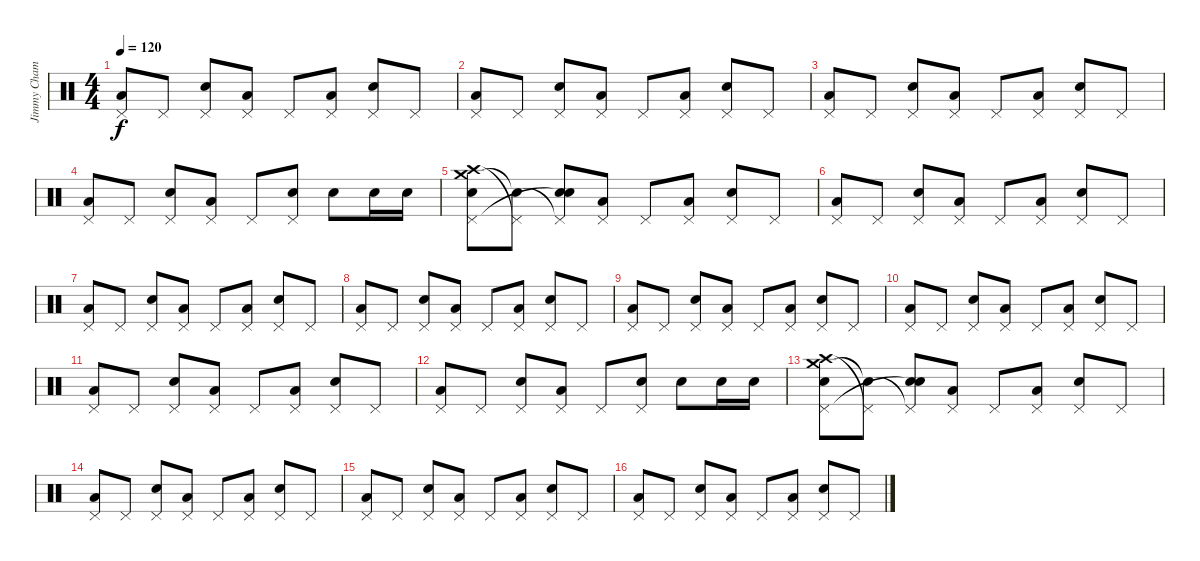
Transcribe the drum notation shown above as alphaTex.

\track ("Jimmy Chamberlin" "Jimmy Cham") {instrument percussion}
\staff {score}
\articulation defaults
\ts (4 4)
\tempo 120
\clef neutral
\ks c
("Low Floor Tom (hit)" "Pedal Hi-Hat (hit)").8{dy f} "Pedal Hi-Hat (hit)".8 ("Snare (hit) 2" "Pedal Hi-Hat (hit)").8 ("Low Floor Tom (hit)" "Pedal Hi-Hat (hit)").8 "Pedal Hi-Hat (hit)".8 ("Low Floor Tom (hit)" "Pedal Hi-Hat (hit)").8 ("Snare (hit) 2" "Pedal Hi-Hat (hit)").8 "Pedal Hi-Hat (hit)".8 |
("Low Floor Tom (hit)" "Pedal Hi-Hat (hit)").8 "Pedal Hi-Hat (hit)".8 ("Snare (hit) 2" "Pedal Hi-Hat (hit)").8 ("Low Floor Tom (hit)" "Pedal Hi-Hat (hit)").8 "Pedal Hi-Hat (hit)".8 ("Low Floor Tom (hit)" "Pedal Hi-Hat (hit)").8 ("Snare (hit) 2" "Pedal Hi-Hat (hit)").8 "Pedal Hi-Hat (hit)".8 |
("Low Floor Tom (hit)" "Pedal Hi-Hat (hit)").8 "Pedal Hi-Hat (hit)".8 ("Snare (hit) 2" "Pedal Hi-Hat (hit)").8 ("Low Floor Tom (hit)" "Pedal Hi-Hat (hit)").8 "Pedal Hi-Hat (hit)".8 ("Low Floor Tom (hit)" "Pedal Hi-Hat (hit)").8 ("Snare (hit) 2" "Pedal Hi-Hat (hit)").8 "Pedal Hi-Hat (hit)".8 |
("Low Floor Tom (hit)" "Pedal Hi-Hat (hit)").8 "Pedal Hi-Hat (hit)".8 ("Snare (hit) 2" "Pedal Hi-Hat (hit)").8 ("Low Floor Tom (hit)" "Pedal Hi-Hat (hit)").8 "Pedal Hi-Hat (hit)".8 ("Snare (hit) 2" "Pedal Hi-Hat (hit)").8 "Snare (hit) 2".8 "Snare (hit) 2".16 "Snare (hit) 2".16 |
("Crash high (hit)" "Crash medium (hit)" "Pedal Hi-Hat (hit)" "Snare (hit)").8 ("Pedal Hi-Hat (hit)"{t} "Snare (hit)"{t}).8 ("Snare (hit) 2" "Pedal Hi-Hat (hit)"{t} "Snare (hit)"{t}).8 ("Low Floor Tom (hit)" "Pedal Hi-Hat (hit)").8 "Pedal Hi-Hat (hit)".8 ("Low Floor Tom (hit)" "Pedal Hi-Hat (hit)").8 ("Snare (hit) 2" "Pedal Hi-Hat (hit)").8 "Pedal Hi-Hat (hit)".8 |
("Low Floor Tom (hit)" "Pedal Hi-Hat (hit)").8 "Pedal Hi-Hat (hit)".8 ("Snare (hit) 2" "Pedal Hi-Hat (hit)").8 ("Low Floor Tom (hit)" "Pedal Hi-Hat (hit)").8 "Pedal Hi-Hat (hit)".8 ("Low Floor Tom (hit)" "Pedal Hi-Hat (hit)").8 ("Snare (hit) 2" "Pedal Hi-Hat (hit)").8 "Pedal Hi-Hat (hit)".8 |
("Low Floor Tom (hit)" "Pedal Hi-Hat (hit)").8 "Pedal Hi-Hat (hit)".8 ("Snare (hit) 2" "Pedal Hi-Hat (hit)").8 ("Low Floor Tom (hit)" "Pedal Hi-Hat (hit)").8 "Pedal Hi-Hat (hit)".8 ("Low Floor Tom (hit)" "Pedal Hi-Hat (hit)").8 ("Snare (hit) 2" "Pedal Hi-Hat (hit)").8 "Pedal Hi-Hat (hit)".8 |
("Low Floor Tom (hit)" "Pedal Hi-Hat (hit)").8 "Pedal Hi-Hat (hit)".8 ("Snare (hit) 2" "Pedal Hi-Hat (hit)").8 ("Low Floor Tom (hit)" "Pedal Hi-Hat (hit)").8 "Pedal Hi-Hat (hit)".8 ("Low Floor Tom (hit)" "Pedal Hi-Hat (hit)").8 ("Snare (hit) 2" "Pedal Hi-Hat (hit)").8 "Pedal Hi-Hat (hit)".8 |
("Low Floor Tom (hit)" "Pedal Hi-Hat (hit)").8 "Pedal Hi-Hat (hit)".8 ("Snare (hit) 2" "Pedal Hi-Hat (hit)").8 ("Low Floor Tom (hit)" "Pedal Hi-Hat (hit)").8 "Pedal Hi-Hat (hit)".8 ("Low Floor Tom (hit)" "Pedal Hi-Hat (hit)").8 ("Snare (hit) 2" "Pedal Hi-Hat (hit)").8 "Pedal Hi-Hat (hit)".8 |
("Low Floor Tom (hit)" "Pedal Hi-Hat (hit)").8 "Pedal Hi-Hat (hit)".8 ("Snare (hit) 2" "Pedal Hi-Hat (hit)").8 ("Low Floor Tom (hit)" "Pedal Hi-Hat (hit)").8 "Pedal Hi-Hat (hit)".8 ("Low Floor Tom (hit)" "Pedal Hi-Hat (hit)").8 ("Snare (hit) 2" "Pedal Hi-Hat (hit)").8 "Pedal Hi-Hat (hit)".8 |
("Low Floor Tom (hit)" "Pedal Hi-Hat (hit)").8 "Pedal Hi-Hat (hit)".8 ("Snare (hit) 2" "Pedal Hi-Hat (hit)").8 ("Low Floor Tom (hit)" "Pedal Hi-Hat (hit)").8 "Pedal Hi-Hat (hit)".8 ("Low Floor Tom (hit)" "Pedal Hi-Hat (hit)").8 ("Snare (hit) 2" "Pedal Hi-Hat (hit)").8 "Pedal Hi-Hat (hit)".8 |
("Low Floor Tom (hit)" "Pedal Hi-Hat (hit)").8 "Pedal Hi-Hat (hit)".8 ("Snare (hit) 2" "Pedal Hi-Hat (hit)").8 ("Low Floor Tom (hit)" "Pedal Hi-Hat (hit)").8 "Pedal Hi-Hat (hit)".8 ("Snare (hit) 2" "Pedal Hi-Hat (hit)").8 "Snare (hit) 2".8 "Snare (hit) 2".16 "Snare (hit) 2".16 |
("Crash high (hit)" "Crash medium (hit)" "Pedal Hi-Hat (hit)" "Snare (hit)").8 ("Pedal Hi-Hat (hit)"{t} "Snare (hit)"{t}).8 ("Snare (hit) 2" "Pedal Hi-Hat (hit)"{t} "Snare (hit)"{t}).8 ("Low Floor Tom (hit)" "Pedal Hi-Hat (hit)").8 "Pedal Hi-Hat (hit)".8 ("Low Floor Tom (hit)" "Pedal Hi-Hat (hit)").8 ("Snare (hit) 2" "Pedal Hi-Hat (hit)").8 "Pedal Hi-Hat (hit)".8 |
("Low Floor Tom (hit)" "Pedal Hi-Hat (hit)").8 "Pedal Hi-Hat (hit)".8 ("Snare (hit) 2" "Pedal Hi-Hat (hit)").8 ("Low Floor Tom (hit)" "Pedal Hi-Hat (hit)").8 "Pedal Hi-Hat (hit)".8 ("Low Floor Tom (hit)" "Pedal Hi-Hat (hit)").8 ("Snare (hit) 2" "Pedal Hi-Hat (hit)").8 "Pedal Hi-Hat (hit)".8 |
("Low Floor Tom (hit)" "Pedal Hi-Hat (hit)").8 "Pedal Hi-Hat (hit)".8 ("Snare (hit) 2" "Pedal Hi-Hat (hit)").8 ("Low Floor Tom (hit)" "Pedal Hi-Hat (hit)").8 "Pedal Hi-Hat (hit)".8 ("Low Floor Tom (hit)" "Pedal Hi-Hat (hit)").8 ("Snare (hit) 2" "Pedal Hi-Hat (hit)").8 "Pedal Hi-Hat (hit)".8 |
("Low Floor Tom (hit)" "Pedal Hi-Hat (hit)").8 "Pedal Hi-Hat (hit)".8 ("Snare (hit) 2" "Pedal Hi-Hat (hit)").8 ("Low Floor Tom (hit)" "Pedal Hi-Hat (hit)").8 "Pedal Hi-Hat (hit)".8 ("Low Floor Tom (hit)" "Pedal Hi-Hat (hit)").8 ("Snare (hit) 2" "Pedal Hi-Hat (hit)").8 "Pedal Hi-Hat (hit)".8
